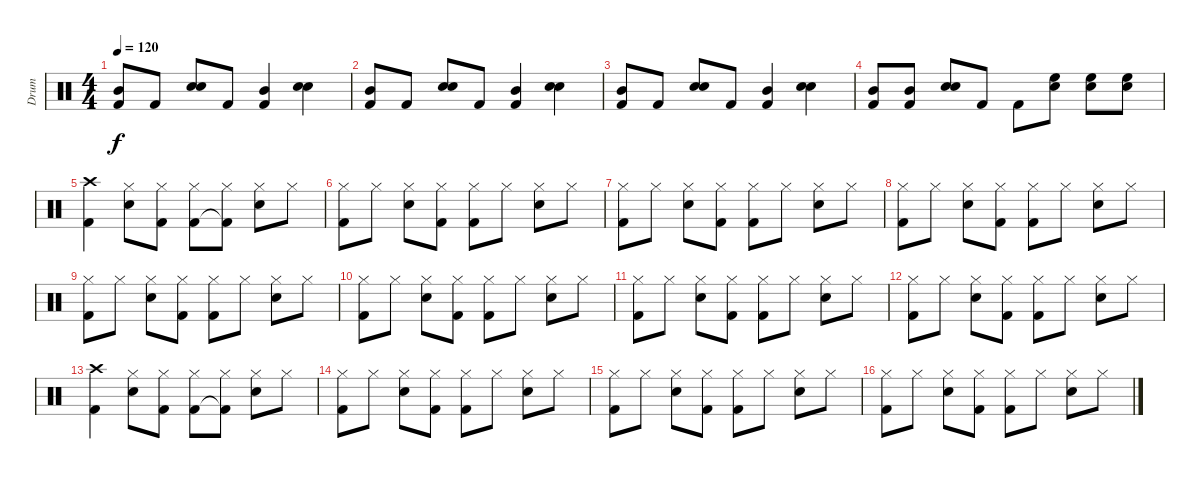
\track ("Drum" "Drum") {instrument percussion}
\staff {score}
\articulation defaults
\ts (4 4)
\tempo 120
\clef neutral
\ks c
("Mid Tom (hit)" "Kick (hit) 2").8{dy f} "Kick (hit) 2".8 ("Snare (hit) 2" "Snare (hit) 2").8 "Kick (hit) 2".8 ("Mid Tom (hit)" "Kick (hit) 2").4 ("Snare (hit) 2" "Snare (hit) 2").4 |
("Mid Tom (hit)" "Kick (hit) 2").8 "Kick (hit) 2".8 ("Snare (hit) 2" "Snare (hit) 2").8 "Kick (hit) 2".8 ("Mid Tom (hit)" "Kick (hit) 2").4 ("Snare (hit) 2" "Snare (hit) 2").4 |
("Mid Tom (hit)" "Kick (hit) 2").8 "Kick (hit) 2".8 ("Snare (hit) 2" "Snare (hit) 2").8 "Kick (hit) 2".8 ("Mid Tom (hit)" "Kick (hit) 2").4 ("Snare (hit) 2" "Snare (hit) 2").4 |
("Mid Tom (hit)" "Kick (hit) 2").8 ("Mid Tom (hit)" "Kick (hit) 2").8 ("Snare (hit) 2" "Snare (hit) 2").8 "Kick (hit) 2".8 "Kick (hit) 2".8 ("Snare (hit) 2" "High Floor Tom (hit)").8 ("Snare (hit) 2" "High Floor Tom (hit)").8 ("Snare (hit) 2" "High Floor Tom (hit)").8 |
("Crash high (hit)" "Kick (hit) 2").4 ("Hi-Hat (closed)" "Snare (hit) 2").8 ("Hi-Hat (closed)" "Kick (hit) 2").8 ("Hi-Hat (closed)" "Kick (hit) 2").8 ("Hi-Hat (closed)" "Kick (hit) 2"{t}).8 ("Hi-Hat (closed)" "Snare (hit) 2").8 "Hi-Hat (closed)".8 |
("Hi-Hat (closed)" "Kick (hit) 2").8 "Hi-Hat (closed)".8 ("Hi-Hat (closed)" "Snare (hit) 2").8 ("Hi-Hat (closed)" "Kick (hit) 2").8 ("Hi-Hat (closed)" "Kick (hit) 2").8 "Hi-Hat (closed)".8 ("Hi-Hat (closed)" "Snare (hit) 2").8 "Hi-Hat (closed)".8 |
("Hi-Hat (closed)" "Kick (hit) 2").8 "Hi-Hat (closed)".8 ("Hi-Hat (closed)" "Snare (hit) 2").8 ("Hi-Hat (closed)" "Kick (hit) 2").8 ("Hi-Hat (closed)" "Kick (hit) 2").8 "Hi-Hat (closed)".8 ("Hi-Hat (closed)" "Snare (hit) 2").8 "Hi-Hat (closed)".8 |
("Hi-Hat (closed)" "Kick (hit) 2").8 "Hi-Hat (closed)".8 ("Hi-Hat (closed)" "Snare (hit) 2").8 ("Hi-Hat (closed)" "Kick (hit) 2").8 ("Hi-Hat (closed)" "Kick (hit) 2").8 "Hi-Hat (closed)".8 ("Hi-Hat (closed)" "Snare (hit) 2").8 "Hi-Hat (closed)".8 |
("Hi-Hat (closed)" "Kick (hit) 2").8 "Hi-Hat (closed)".8 ("Hi-Hat (closed)" "Snare (hit) 2").8 ("Hi-Hat (closed)" "Kick (hit) 2").8 ("Hi-Hat (closed)" "Kick (hit) 2").8 "Hi-Hat (closed)".8 ("Hi-Hat (closed)" "Snare (hit) 2").8 "Hi-Hat (closed)".8 |
("Hi-Hat (closed)" "Kick (hit) 2").8 "Hi-Hat (closed)".8 ("Hi-Hat (closed)" "Snare (hit) 2").8 ("Hi-Hat (closed)" "Kick (hit) 2").8 ("Hi-Hat (closed)" "Kick (hit) 2").8 "Hi-Hat (closed)".8 ("Hi-Hat (closed)" "Snare (hit) 2").8 "Hi-Hat (closed)".8 |
("Hi-Hat (closed)" "Kick (hit) 2").8 "Hi-Hat (closed)".8 ("Hi-Hat (closed)" "Snare (hit) 2").8 ("Hi-Hat (closed)" "Kick (hit) 2").8 ("Hi-Hat (closed)" "Kick (hit) 2").8 "Hi-Hat (closed)".8 ("Hi-Hat (closed)" "Snare (hit) 2").8 "Hi-Hat (closed)".8 |
("Hi-Hat (closed)" "Kick (hit) 2").8 "Hi-Hat (closed)".8 ("Hi-Hat (closed)" "Snare (hit) 2").8 ("Hi-Hat (closed)" "Kick (hit) 2").8 ("Hi-Hat (closed)" "Kick (hit) 2").8 "Hi-Hat (closed)".8 ("Hi-Hat (closed)" "Snare (hit) 2").8 "Hi-Hat (closed)".8 |
("Crash high (hit)" "Kick (hit) 2").4 ("Hi-Hat (closed)" "Snare (hit) 2").8 ("Hi-Hat (closed)" "Kick (hit) 2").8 ("Hi-Hat (closed)" "Kick (hit) 2").8 ("Hi-Hat (closed)" "Kick (hit) 2"{t}).8 ("Hi-Hat (closed)" "Snare (hit) 2").8 "Hi-Hat (closed)".8 |
("Hi-Hat (closed)" "Kick (hit) 2").8 "Hi-Hat (closed)".8 ("Hi-Hat (closed)" "Snare (hit) 2").8 ("Hi-Hat (closed)" "Kick (hit) 2").8 ("Hi-Hat (closed)" "Kick (hit) 2").8 "Hi-Hat (closed)".8 ("Hi-Hat (closed)" "Snare (hit) 2").8 "Hi-Hat (closed)".8 |
("Hi-Hat (closed)" "Kick (hit) 2").8 "Hi-Hat (closed)".8 ("Hi-Hat (closed)" "Snare (hit) 2").8 ("Hi-Hat (closed)" "Kick (hit) 2").8 ("Hi-Hat (closed)" "Kick (hit) 2").8 "Hi-Hat (closed)".8 ("Hi-Hat (closed)" "Snare (hit) 2").8 "Hi-Hat (closed)".8 |
("Hi-Hat (closed)" "Kick (hit) 2").8 "Hi-Hat (closed)".8 ("Hi-Hat (closed)" "Snare (hit) 2").8 ("Hi-Hat (closed)" "Kick (hit) 2").8 ("Hi-Hat (closed)" "Kick (hit) 2").8 "Hi-Hat (closed)".8 ("Hi-Hat (closed)" "Snare (hit) 2").8 "Hi-Hat (closed)".8
